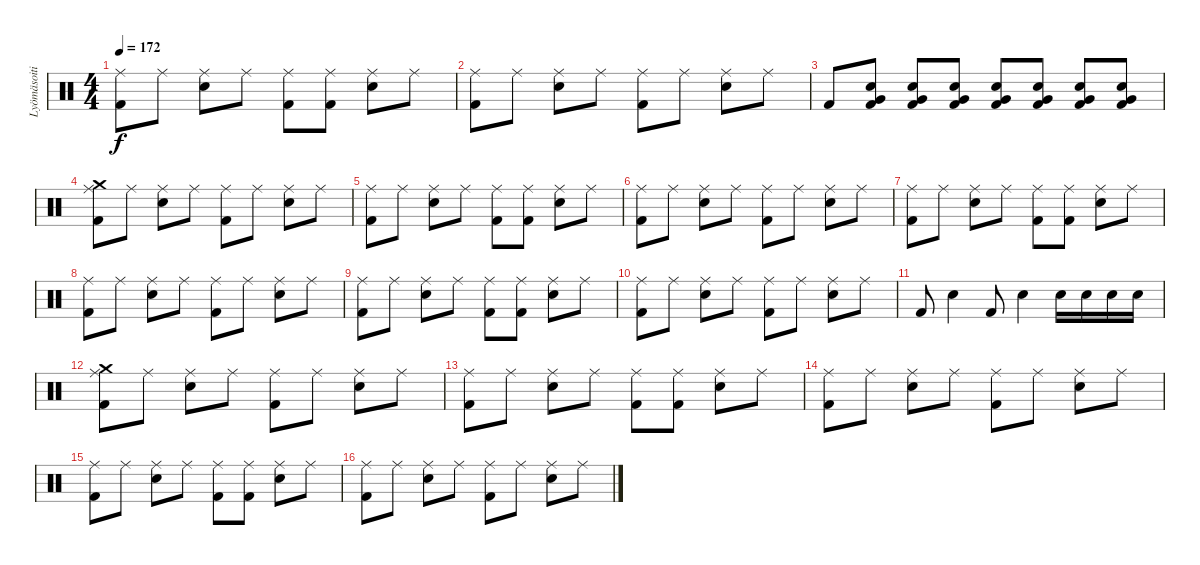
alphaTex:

\track ("Lyömäsoitin" "Lyömäsoiti") {instrument percussion}
\staff {score}
\articulation defaults
\ts (4 4)
\tempo 172
\clef neutral
\ks c
("Ride (middle)" "Kick (hit) 2").8{dy f} "Ride (middle)".8 ("Ride (middle)" "Electric Snare (hit)").8 "Ride (middle)".8 ("Ride (middle)" "Kick (hit) 2").8 ("Ride (middle)" "Kick (hit) 2").8 ("Ride (middle)" "Electric Snare (hit)").8 "Ride (middle)".8 |
("Ride (middle)" "Kick (hit) 2").8 "Ride (middle)".8 ("Ride (middle)" "Electric Snare (hit)").8 "Ride (middle)".8 ("Ride (middle)" "Kick (hit) 2").8 "Ride (middle)".8 ("Ride (middle)" "Electric Snare (hit)").8 "Ride (middle)".8 |
"Kick (hit) 2".8 ("Very Low Tom (hit)" "Electric Snare (hit)" "Kick (hit) 2").8 ("Very Low Tom (hit)" "Electric Snare (hit)" "Kick (hit) 2").8 ("Very Low Tom (hit)" "Electric Snare (hit)" "Kick (hit) 2").8 ("Very Low Tom (hit)" "Electric Snare (hit)" "Kick (hit) 2").8 ("Very Low Tom (hit)" "Electric Snare (hit)" "Kick (hit) 2").8 ("Very Low Tom (hit)" "Electric Snare (hit)" "Kick (hit) 2").8 ("Very Low Tom (hit)" "Electric Snare (hit)" "Kick (hit) 2").8 |
("Crash medium (hit)" "Ride (middle)" "Kick (hit) 2").8 "Ride (middle)".8 ("Ride (middle)" "Electric Snare (hit)").8 "Ride (middle)".8 ("Ride (middle)" "Kick (hit) 2").8 "Ride (middle)".8 ("Ride (middle)" "Electric Snare (hit)").8 "Ride (middle)".8 |
("Ride (middle)" "Kick (hit) 2").8 "Ride (middle)".8 ("Ride (middle)" "Electric Snare (hit)").8 "Ride (middle)".8 ("Ride (middle)" "Kick (hit) 2").8 ("Ride (middle)" "Kick (hit) 2").8 ("Ride (middle)" "Electric Snare (hit)").8 "Ride (middle)".8 |
("Ride (middle)" "Kick (hit) 2").8 "Ride (middle)".8 ("Ride (middle)" "Electric Snare (hit)").8 "Ride (middle)".8 ("Ride (middle)" "Kick (hit) 2").8 "Ride (middle)".8 ("Ride (middle)" "Electric Snare (hit)").8 "Ride (middle)".8 |
("Ride (middle)" "Kick (hit) 2").8 "Ride (middle)".8 ("Ride (middle)" "Electric Snare (hit)").8 "Ride (middle)".8 ("Ride (middle)" "Kick (hit) 2").8 ("Ride (middle)" "Kick (hit) 2").8 ("Ride (middle)" "Electric Snare (hit)").8 "Ride (middle)".8 |
("Ride (middle)" "Kick (hit) 2").8 "Ride (middle)".8 ("Ride (middle)" "Electric Snare (hit)").8 "Ride (middle)".8 ("Ride (middle)" "Kick (hit) 2").8 "Ride (middle)".8 ("Ride (middle)" "Electric Snare (hit)").8 "Ride (middle)".8 |
("Ride (middle)" "Kick (hit) 2").8 "Ride (middle)".8 ("Ride (middle)" "Electric Snare (hit)").8 "Ride (middle)".8 ("Ride (middle)" "Kick (hit) 2").8 ("Ride (middle)" "Kick (hit) 2").8 ("Ride (middle)" "Electric Snare (hit)").8 "Ride (middle)".8 |
("Ride (middle)" "Kick (hit) 2").8 "Ride (middle)".8 ("Ride (middle)" "Electric Snare (hit)").8 "Ride (middle)".8 ("Ride (middle)" "Kick (hit) 2").8 "Ride (middle)".8 ("Ride (middle)" "Electric Snare (hit)").8 "Ride (middle)".8 |
"Kick (hit) 2".8 "Electric Snare (hit)".4 "Kick (hit) 2".8 "Electric Snare (hit)".4 "Electric Snare (hit)".16 "Electric Snare (hit)".16 "Electric Snare (hit)".16 "Electric Snare (hit)".16 |
("Crash medium (hit)" "Ride (middle)" "Kick (hit) 2").8 "Ride (middle)".8 ("Ride (middle)" "Electric Snare (hit)").8 "Ride (middle)".8 ("Ride (middle)" "Kick (hit) 2").8 "Ride (middle)".8 ("Ride (middle)" "Electric Snare (hit)").8 "Ride (middle)".8 |
("Ride (middle)" "Kick (hit) 2").8 "Ride (middle)".8 ("Ride (middle)" "Electric Snare (hit)").8 "Ride (middle)".8 ("Ride (middle)" "Kick (hit) 2").8 ("Ride (middle)" "Kick (hit) 2").8 ("Ride (middle)" "Electric Snare (hit)").8 "Ride (middle)".8 |
("Ride (middle)" "Kick (hit) 2").8 "Ride (middle)".8 ("Ride (middle)" "Electric Snare (hit)").8 "Ride (middle)".8 ("Ride (middle)" "Kick (hit) 2").8 "Ride (middle)".8 ("Ride (middle)" "Electric Snare (hit)").8 "Ride (middle)".8 |
("Ride (middle)" "Kick (hit) 2").8 "Ride (middle)".8 ("Ride (middle)" "Electric Snare (hit)").8 "Ride (middle)".8 ("Ride (middle)" "Kick (hit) 2").8 ("Ride (middle)" "Kick (hit) 2").8 ("Ride (middle)" "Electric Snare (hit)").8 "Ride (middle)".8 |
("Ride (middle)" "Kick (hit) 2").8 "Ride (middle)".8 ("Ride (middle)" "Electric Snare (hit)").8 "Ride (middle)".8 ("Ride (middle)" "Kick (hit) 2").8 "Ride (middle)".8 ("Ride (middle)" "Electric Snare (hit)").8 "Ride (middle)".8
